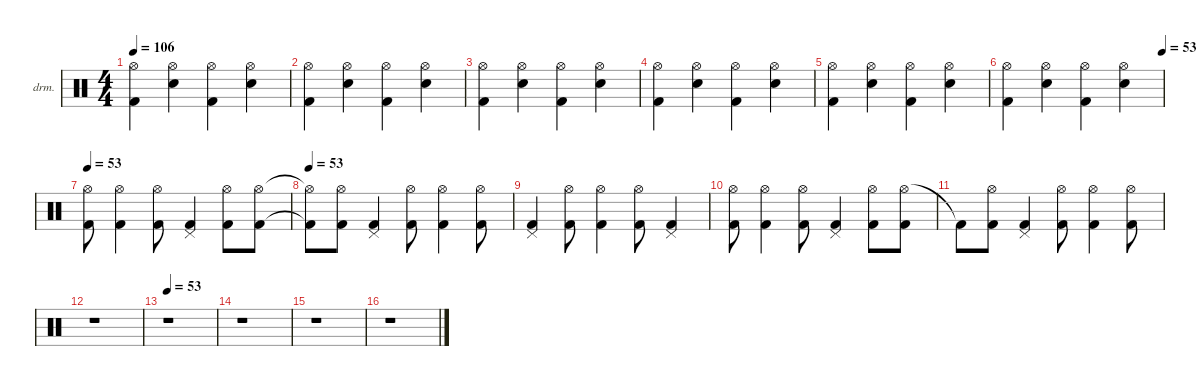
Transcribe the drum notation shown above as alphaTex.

\defaultSystemsLayout 4
\hideDynamics
\bracketExtendMode nobrackets
\firstSystemTrackNameOrientation horizontal
\otherSystemsTrackNameOrientation horizontal
\track ("Lars Ulrich" "drm.") {instrument percussion}
\staff {score}
\articulation defaults
\ts (4 4)
\tempo 106
\clef neutral
\ks c
("Hi-Hat (open)" "Kick (hit) 2").4{dy f} ("Hi-Hat (open)" "Snare (hit) 2").4 ("Hi-Hat (open)" "Kick (hit) 2").4 ("Hi-Hat (open)" "Snare (hit) 2").4 |
("Hi-Hat (open)" "Kick (hit) 2").4 ("Hi-Hat (open)" "Snare (hit) 2").4 ("Hi-Hat (open)" "Kick (hit) 2").4 ("Hi-Hat (open)" "Snare (hit) 2").4 |
("Hi-Hat (open)" "Kick (hit) 2").4 ("Hi-Hat (open)" "Snare (hit) 2").4 ("Hi-Hat (open)" "Kick (hit) 2").4 ("Hi-Hat (open)" "Snare (hit) 2").4 |
("Hi-Hat (open)" "Kick (hit) 2").4 ("Hi-Hat (open)" "Snare (hit) 2").4 ("Hi-Hat (open)" "Kick (hit) 2").4 ("Hi-Hat (open)" "Snare (hit) 2").4 |
("Hi-Hat (open)" "Kick (hit) 2").4 ("Hi-Hat (open)" "Snare (hit) 2").4 ("Hi-Hat (open)" "Kick (hit) 2").4 ("Hi-Hat (open)" "Snare (hit) 2").4 |
\tempo (53 1)
("Hi-Hat (open)" "Kick (hit) 2").4 ("Hi-Hat (open)" "Snare (hit) 2").4 ("Hi-Hat (open)" "Kick (hit) 2").4 ("Hi-Hat (open)" "Snare (hit) 2").4 |
\tempo 53
("Hi-Hat (open)" "Kick (hit) 2").8 ("Hi-Hat (open)" "Kick (hit) 2").4 ("Hi-Hat (open)" "Kick (hit) 2").8 ("Pedal Hi-Hat (hit)" "Kick (hit) 2").4{dy mf} ("Hi-Hat (open)" "Kick (hit) 2").8 ("Hi-Hat (open)" "Kick (hit) 2").8 |
\tempo 53
("Hi-Hat (open)"{t} "Kick (hit) 2"{t}).8{dy f} ("Hi-Hat (open)" "Kick (hit) 2").8{dy mf} ("Pedal Hi-Hat (hit)" "Kick (hit) 2").4 ("Hi-Hat (open)" "Kick (hit) 2").8{dy mp} ("Hi-Hat (open)" "Kick (hit) 2").4 ("Hi-Hat (open)" "Kick (hit) 2").8 |
("Pedal Hi-Hat (hit)" "Kick (hit) 2").4 ("Hi-Hat (open)" "Kick (hit) 2").8{dy p} ("Hi-Hat (open)" "Kick (hit) 2").4 ("Hi-Hat (open)" "Kick (hit) 2").8 ("Pedal Hi-Hat (hit)" "Kick (hit) 2").4 |
("Hi-Hat (open)" "Kick (hit) 2").8 ("Hi-Hat (open)" "Kick (hit) 2").4 ("Hi-Hat (open)" "Kick (hit) 2").8 ("Pedal Hi-Hat (hit)" "Kick (hit) 2").4{dy pp} ("Hi-Hat (open)" "Kick (hit) 2").8 ("Hi-Hat (open)" "Kick (hit) 2").8 |
"Kick (hit) 2"{t}.8{dy f} ("Hi-Hat (open)" "Kick (hit) 2").8{dy pp} ("Pedal Hi-Hat (hit)" "Kick (hit) 2").4 ("Hi-Hat (open)" "Kick (hit) 2").8 ("Hi-Hat (open)" "Kick (hit) 2").4 ("Hi-Hat (open)" "Kick (hit) 2").8 |
r.1 |
\tempo 53
r.1 |
r.1 |
r.1 |
r.1
